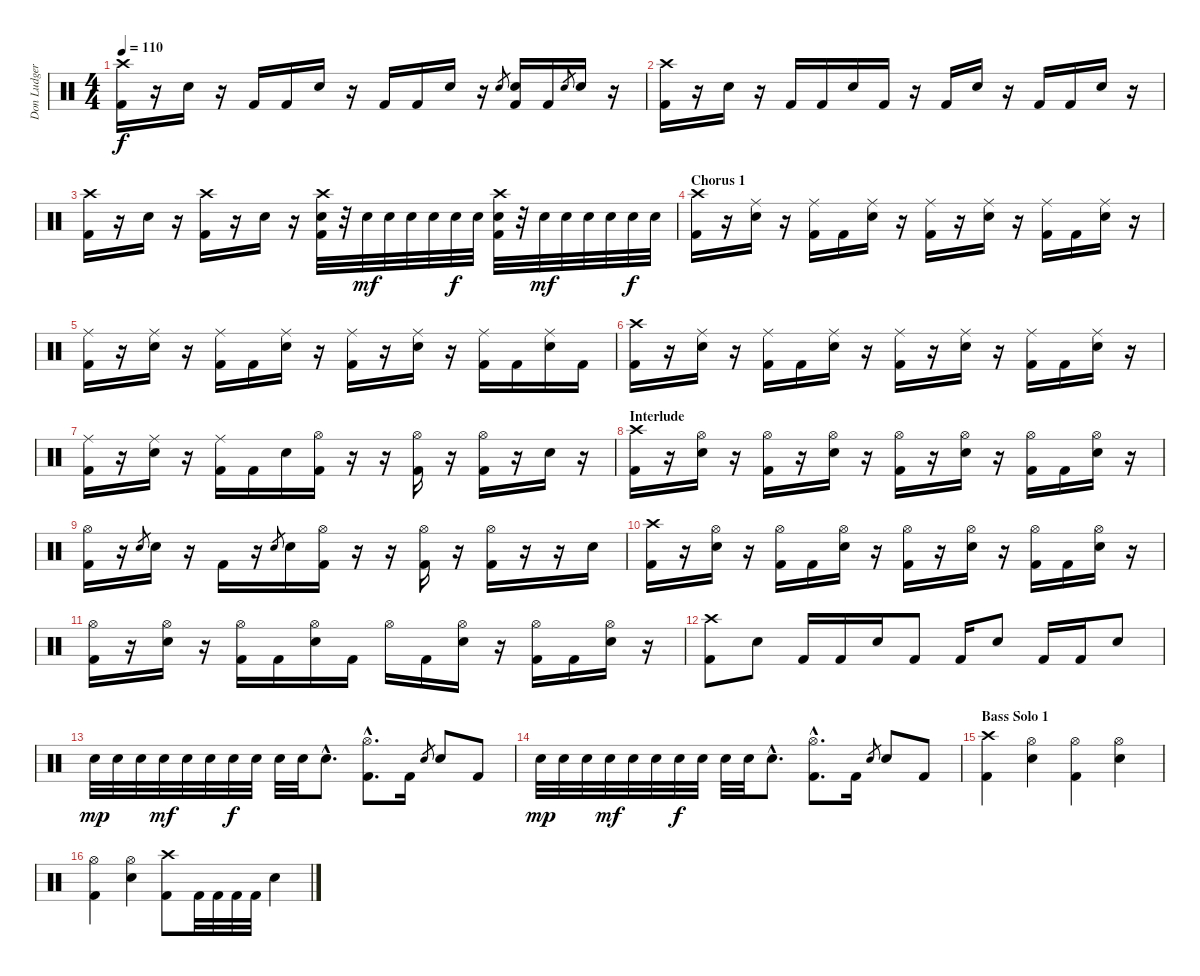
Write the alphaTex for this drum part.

\track ("Don Ludger" "Don Ludger") {instrument percussion}
\staff {score}
\articulation defaults
\ts (4 4)
\tempo 110
\clef neutral
\ks c
("Crash high (hit)" "Kick (hit) 2").16{dy f} r.16 "Electric Snare (hit)".16 r.16 "Kick (hit) 2".16 "Kick (hit) 2".16 "Electric Snare (hit)".16 r.16 "Kick (hit) 2".16 "Kick (hit) 2".16 "Electric Snare (hit)".16 r.16 "Electric Snare (hit)".8{gr} ("Electric Snare (hit)" "Kick (hit) 2").16 "Kick (hit) 2".16 "Electric Snare (hit)".8{gr} "Electric Snare (hit)".16 r.16 |
("Crash high (hit)" "Kick (hit) 2").16 r.16 "Electric Snare (hit)".16 r.16 "Kick (hit) 2".16 "Kick (hit) 2".16 "Electric Snare (hit)".16 "Kick (hit) 2".16 r.16 "Kick (hit) 2".16 "Electric Snare (hit)".16 r.16 "Kick (hit) 2".16 "Kick (hit) 2".16 "Electric Snare (hit)".16 r.16 |
("Crash high (hit)" "Kick (hit) 2").16 r.16 "Electric Snare (hit)".16 r.16 ("Crash high (hit)" "Kick (hit) 2").16 r.16 "Electric Snare (hit)".16 r.16 ("Crash high (hit)" "Electric Snare (hit)" "Kick (hit) 2").32 r.32 "Electric Snare (hit)".32{dy mf} "Electric Snare (hit)".32 "Electric Snare (hit)".32 "Electric Snare (hit)".32 "Electric Snare (hit)".32{dy f} "Electric Snare (hit)".32 ("Crash high (hit)" "Electric Snare (hit)" "Kick (hit) 2").32 r.32 "Electric Snare (hit)".32{dy mf} "Electric Snare (hit)".32 "Electric Snare (hit)".32 "Electric Snare (hit)".32 "Electric Snare (hit)".32{dy f} "Electric Snare (hit)".32 |
\section ("" "Chorus 1")
("Crash high (hit)" "Kick (hit) 2").16 r.16 ("Ride (middle)" "Electric Snare (hit)").16 r.16 ("Ride (middle)" "Kick (hit) 2").16 "Kick (hit) 2".16 ("Ride (middle)" "Electric Snare (hit)").16 r.16 ("Ride (middle)" "Kick (hit) 2").16 r.16 ("Ride (middle)" "Electric Snare (hit)").16 r.16 ("Ride (middle)" "Kick (hit) 2").16 "Kick (hit) 2".16 ("Ride (middle)" "Electric Snare (hit)").16 r.16 |
("Ride (middle)" "Kick (hit) 2").16 r.16 ("Ride (middle)" "Electric Snare (hit)").16 r.16 ("Ride (middle)" "Kick (hit) 2").16 "Kick (hit) 2".16 ("Ride (middle)" "Electric Snare (hit)").16 r.16 ("Ride (middle)" "Kick (hit) 2").16 r.16 ("Ride (middle)" "Electric Snare (hit)").16 r.16 ("Ride (middle)" "Kick (hit) 2").16 "Kick (hit) 2".16 ("Ride (middle)" "Electric Snare (hit)").16 "Kick (hit) 2".16 |
("Crash high (hit)" "Kick (hit) 2").16 r.16 ("Ride (middle)" "Electric Snare (hit)").16 r.16 ("Ride (middle)" "Kick (hit) 2").16 "Kick (hit) 2".16 ("Ride (middle)" "Electric Snare (hit)").16 r.16 ("Ride (middle)" "Kick (hit) 2").16 r.16 ("Ride (middle)" "Electric Snare (hit)").16 r.16 ("Ride (middle)" "Kick (hit) 2").16 "Kick (hit) 2".16 ("Ride (middle)" "Electric Snare (hit)").16 r.16 |
("Ride (middle)" "Kick (hit) 2").16 r.16 ("Ride (middle)" "Electric Snare (hit)").16 r.16 ("Ride (middle)" "Kick (hit) 2").16 "Kick (hit) 2".16 "Electric Snare (hit)".16 ("Hi-Hat (open)" "Kick (hit) 2").16 r.16 r.16 ("Hi-Hat (open)" "Kick (hit) 2").16 r.16 ("Hi-Hat (open)" "Kick (hit) 2").16 r.16 "Electric Snare (hit)".16 r.16 |
\section ("" "Interlude")
("Crash high (hit)" "Kick (hit) 2").16 r.16 ("Hi-Hat (open)" "Electric Snare (hit)").16 r.16 ("Hi-Hat (open)" "Kick (hit) 2").16 r.16 ("Hi-Hat (open)" "Electric Snare (hit)").16 r.16 ("Hi-Hat (open)" "Kick (hit) 2").16 r.16 ("Hi-Hat (open)" "Electric Snare (hit)").16 r.16 ("Hi-Hat (open)" "Kick (hit) 2").16 "Kick (hit) 2".16 ("Hi-Hat (open)" "Electric Snare (hit)").16 r.16 |
("Hi-Hat (open)" "Kick (hit) 2").16 r.16 "Electric Snare (hit)".8{gr} "Electric Snare (hit)".16 r.16 "Kick (hit) 2".16 r.16 "Electric Snare (hit)".8{gr} "Electric Snare (hit)".16 ("Hi-Hat (open)" "Kick (hit) 2").16 r.16 r.16 ("Hi-Hat (open)" "Kick (hit) 2").16 r.16 ("Hi-Hat (open)" "Kick (hit) 2").16 r.16 r.16 "Electric Snare (hit)".16 |
("Crash high (hit)" "Kick (hit) 2").16 r.16 ("Hi-Hat (open)" "Electric Snare (hit)").16 r.16 ("Hi-Hat (open)" "Kick (hit) 2").16 "Kick (hit) 2".16 ("Hi-Hat (open)" "Electric Snare (hit)").16 r.16 ("Hi-Hat (open)" "Kick (hit) 2").16 r.16 ("Hi-Hat (open)" "Electric Snare (hit)").16 r.16 ("Hi-Hat (open)" "Kick (hit) 2").16 "Kick (hit) 2".16 ("Hi-Hat (open)" "Electric Snare (hit)").16 r.16 |
("Hi-Hat (open)" "Kick (hit) 2").16 r.16 ("Hi-Hat (open)" "Electric Snare (hit)").16 r.16 ("Hi-Hat (open)" "Kick (hit) 2").16 "Kick (hit) 2".16 ("Hi-Hat (open)" "Electric Snare (hit)").16 "Kick (hit) 2".16 "Hi-Hat (open)".16 "Kick (hit) 2".16 ("Hi-Hat (open)" "Electric Snare (hit)").16 r.16 ("Hi-Hat (open)" "Kick (hit) 2").16 "Kick (hit) 2".16 ("Hi-Hat (open)" "Electric Snare (hit)").16 r.16 |
("Crash high (hit)" "Kick (hit) 2").8 "Electric Snare (hit)".8 "Kick (hit) 2".16 "Kick (hit) 2".16 "Electric Snare (hit)".16 "Kick (hit) 2".8 "Kick (hit) 2".16 "Electric Snare (hit)".8 "Kick (hit) 2".16 "Kick (hit) 2".16 "Electric Snare (hit)".8 |
"Electric Snare (hit)".32{dy mp} "Electric Snare (hit)".32 "Electric Snare (hit)".32 "Electric Snare (hit)".32{dy mf} "Electric Snare (hit)".32 "Electric Snare (hit)".32 "Electric Snare (hit)".32{dy f} "Electric Snare (hit)".32 "Electric Snare (hit)".32 "Electric Snare (hit)".32 "Electric Snare (hit)"{hac}.8{d} ("Hi-Hat (open)"{hac} "Kick (hit) 2"{hac}).8{d} "Kick (hit) 2".16 "Electric Snare (hit)".8{gr} "Electric Snare (hit)".8 "Kick (hit) 2".8 |
"Electric Snare (hit)".32{dy mp} "Electric Snare (hit)".32 "Electric Snare (hit)".32 "Electric Snare (hit)".32{dy mf} "Electric Snare (hit)".32 "Electric Snare (hit)".32 "Electric Snare (hit)".32{dy f} "Electric Snare (hit)".32 "Electric Snare (hit)".32 "Electric Snare (hit)".32 "Electric Snare (hit)"{hac}.8{d} ("Hi-Hat (open)"{hac} "Kick (hit) 2"{hac}).8{d} "Kick (hit) 2".16 "Electric Snare (hit)".8{gr} "Electric Snare (hit)".8 "Kick (hit) 2".8 |
\section ("" "Bass Solo 1")
("Crash high (hit)" "Kick (hit) 2").4 ("Hi-Hat (open)" "Electric Snare (hit)").4 ("Hi-Hat (open)" "Kick (hit) 2").4 ("Hi-Hat (open)" "Electric Snare (hit)").4 |
("Hi-Hat (open)" "Kick (hit) 2").4 ("Hi-Hat (open)" "Electric Snare (hit)").4 ("Crash high (hit)" "Kick (hit) 2").8 "Kick (hit) 2".32 "Kick (hit) 2".32 "Kick (hit) 2".32 "Kick (hit) 2".32 "Electric Snare (hit)".4
